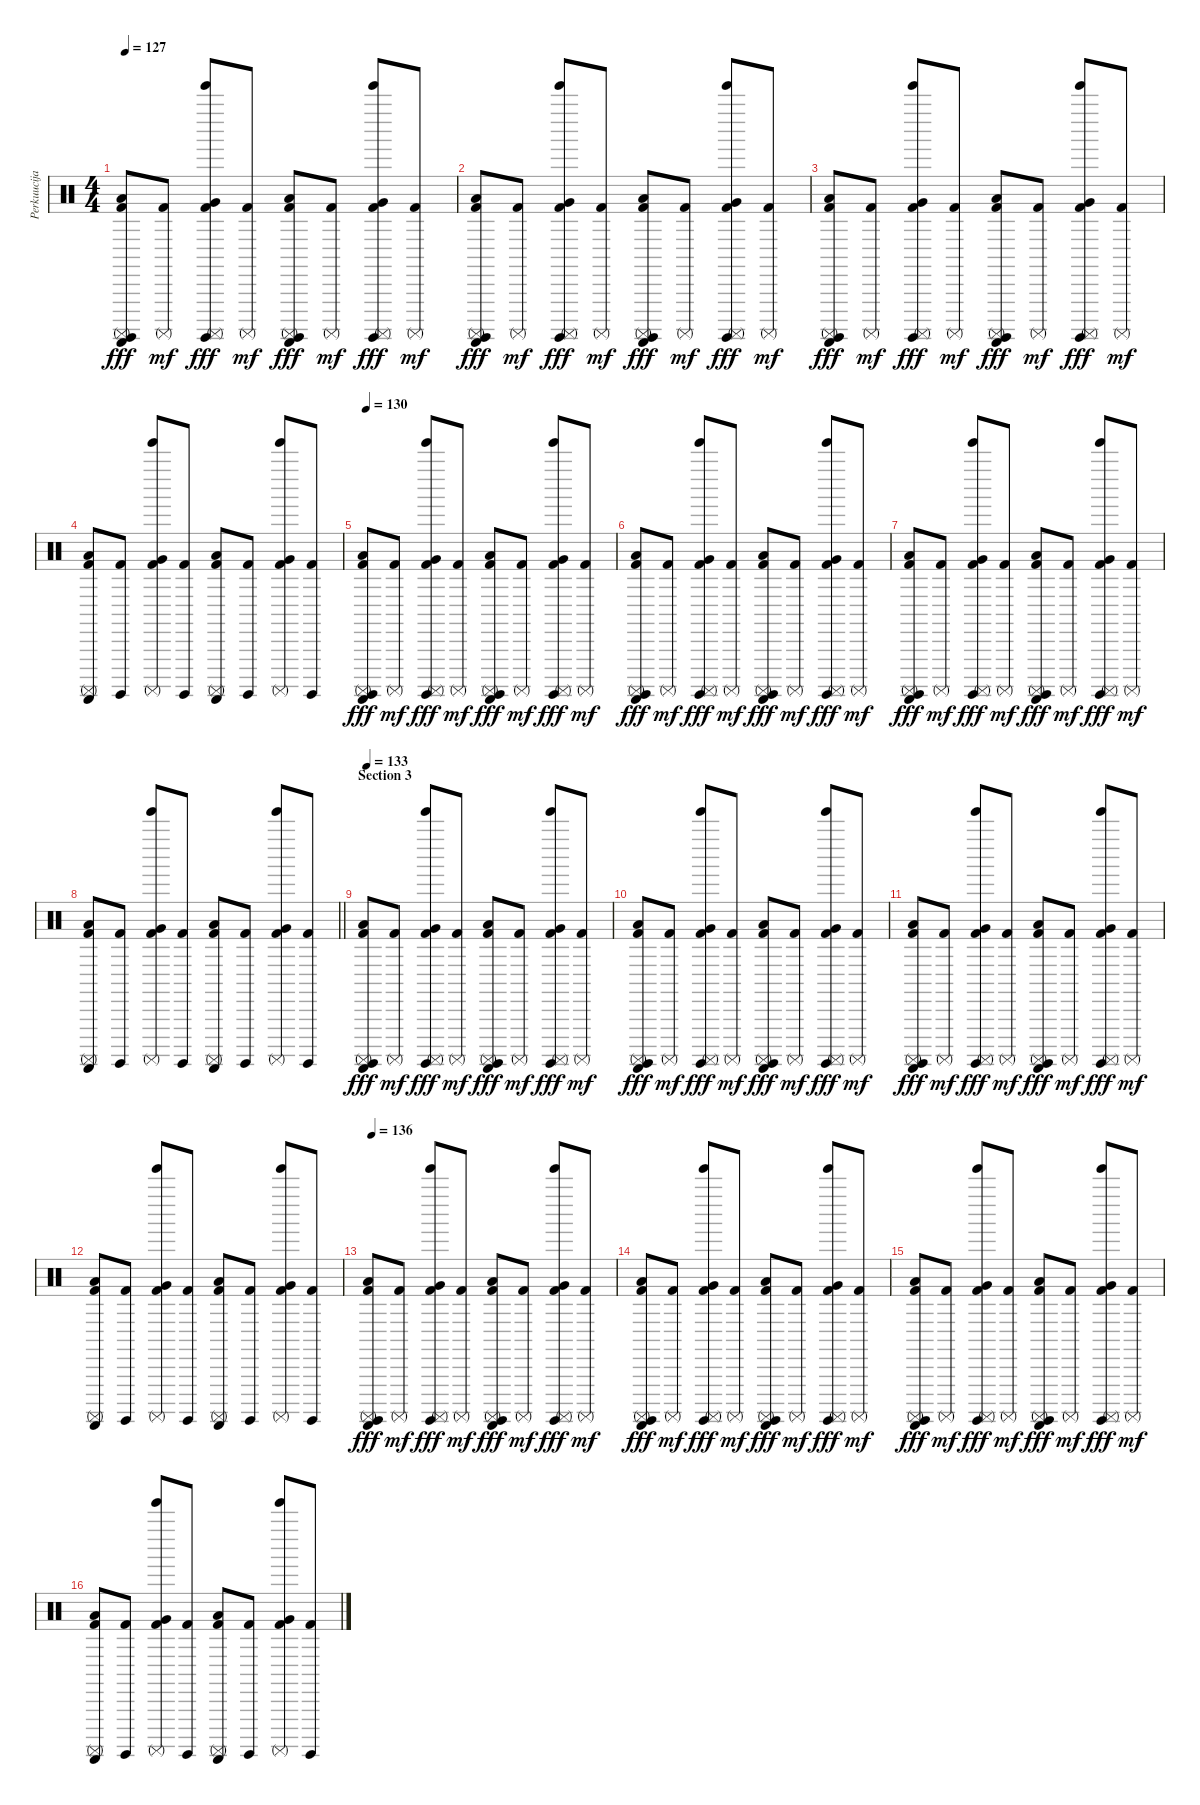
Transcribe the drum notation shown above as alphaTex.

\track ("Perkuucijas" "Perkuucija") {instrument percussion}
\staff {score}
\articulation defaults
\ts (4 4)
\tempo 127
\clef neutral
\ks c
("Kick (hit) 2" "Guiro (scrap-return)" "Low Floor Tom (hit)" "Surdo (hit)" "Surdo (mute)").8{dy fff} ("Kick (hit) 2" "Surdo (mute)").8{dy mf} ("Kick (hit) 2" "Tinkle Bell (hit)" "Very Low Tom (hit)" "Surdo (hit)" "Surdo (mute)").8{dy fff} ("Kick (hit) 2" "Surdo (mute)").8{dy mf} ("Kick (hit) 2" "Guiro (scrap-return)" "Low Tom (hit)" "Surdo (hit)" "Surdo (mute)").8{dy fff} ("Kick (hit) 2" "Surdo (mute)").8{dy mf} ("Kick (hit) 2" "Tinkle Bell (hit)" "Very Low Tom (hit)" "Surdo (hit)" "Surdo (mute)").8{dy fff} ("Kick (hit) 2" "Surdo (mute)").8{dy mf} |
("Kick (hit) 2" "Guiro (scrap-return)" "Low Floor Tom (hit)" "Surdo (hit)" "Surdo (mute)").8{dy fff} ("Kick (hit) 2" "Surdo (mute)").8{dy mf} ("Kick (hit) 2" "Tinkle Bell (hit)" "Very Low Tom (hit)" "Surdo (hit)" "Surdo (mute)").8{dy fff} ("Kick (hit) 2" "Surdo (mute)").8{dy mf} ("Kick (hit) 2" "Guiro (scrap-return)" "Low Tom (hit)" "Surdo (hit)" "Surdo (mute)").8{dy fff} ("Kick (hit) 2" "Surdo (mute)").8{dy mf} ("Kick (hit) 2" "Tinkle Bell (hit)" "Very Low Tom (hit)" "Surdo (hit)" "Surdo (mute)").8{dy fff} ("Kick (hit) 2" "Surdo (mute)").8{dy mf} |
("Kick (hit) 2" "Guiro (scrap-return)" "Low Floor Tom (hit)" "Surdo (hit)" "Surdo (mute)").8{dy fff} ("Kick (hit) 2" "Surdo (mute)").8{dy mf} ("Kick (hit) 2" "Tinkle Bell (hit)" "Very Low Tom (hit)" "Surdo (hit)" "Surdo (mute)").8{dy fff} ("Kick (hit) 2" "Surdo (mute)").8{dy mf} ("Kick (hit) 2" "Guiro (scrap-return)" "Low Tom (hit)" "Surdo (hit)" "Surdo (mute)").8{dy fff} ("Kick (hit) 2" "Surdo (mute)").8{dy mf} ("Kick (hit) 2" "Tinkle Bell (hit)" "Very Low Tom (hit)" "Surdo (hit)" "Surdo (mute)").8{dy fff} ("Kick (hit) 2" "Surdo (mute)").8{dy mf} |
("Kick (hit) 2" "Guiro (scrap-return)" "Low Floor Tom (hit)" "Surdo (mute)").8 ("Kick (hit) 2" "Surdo (hit)").8 ("Kick (hit) 2" "Tinkle Bell (hit)" "Very Low Tom (hit)" "Surdo (mute)").8 ("Kick (hit) 2" "Surdo (hit)").8 ("Kick (hit) 2" "Guiro (scrap-return)" "Low Tom (hit)" "Surdo (mute)").8 ("Kick (hit) 2" "Surdo (hit)").8 ("Kick (hit) 2" "Tinkle Bell (hit)" "Very Low Tom (hit)" "Surdo (mute)").8 ("Kick (hit) 2" "Surdo (hit)").8 |
\tempo 130
("Kick (hit) 2" "Guiro (scrap-return)" "Low Floor Tom (hit)" "Surdo (hit)" "Surdo (mute)").8{dy fff} ("Kick (hit) 2" "Surdo (mute)").8{dy mf} ("Kick (hit) 2" "Tinkle Bell (hit)" "Very Low Tom (hit)" "Surdo (hit)" "Surdo (mute)").8{dy fff} ("Kick (hit) 2" "Surdo (mute)").8{dy mf} ("Kick (hit) 2" "Guiro (scrap-return)" "Low Tom (hit)" "Surdo (hit)" "Surdo (mute)").8{dy fff} ("Kick (hit) 2" "Surdo (mute)").8{dy mf} ("Kick (hit) 2" "Tinkle Bell (hit)" "Very Low Tom (hit)" "Surdo (hit)" "Surdo (mute)").8{dy fff} ("Kick (hit) 2" "Surdo (mute)").8{dy mf} |
("Kick (hit) 2" "Guiro (scrap-return)" "Low Floor Tom (hit)" "Surdo (hit)" "Surdo (mute)").8{dy fff} ("Kick (hit) 2" "Surdo (mute)").8{dy mf} ("Kick (hit) 2" "Tinkle Bell (hit)" "Very Low Tom (hit)" "Surdo (hit)" "Surdo (mute)").8{dy fff} ("Kick (hit) 2" "Surdo (mute)").8{dy mf} ("Kick (hit) 2" "Guiro (scrap-return)" "Low Tom (hit)" "Surdo (hit)" "Surdo (mute)").8{dy fff} ("Kick (hit) 2" "Surdo (mute)").8{dy mf} ("Kick (hit) 2" "Tinkle Bell (hit)" "Very Low Tom (hit)" "Surdo (hit)" "Surdo (mute)").8{dy fff} ("Kick (hit) 2" "Surdo (mute)").8{dy mf} |
("Kick (hit) 2" "Guiro (scrap-return)" "Low Floor Tom (hit)" "Surdo (hit)" "Surdo (mute)").8{dy fff} ("Kick (hit) 2" "Surdo (mute)").8{dy mf} ("Kick (hit) 2" "Tinkle Bell (hit)" "Very Low Tom (hit)" "Surdo (hit)" "Surdo (mute)").8{dy fff} ("Kick (hit) 2" "Surdo (mute)").8{dy mf} ("Kick (hit) 2" "Guiro (scrap-return)" "Low Tom (hit)" "Surdo (hit)" "Surdo (mute)").8{dy fff} ("Kick (hit) 2" "Surdo (mute)").8{dy mf} ("Kick (hit) 2" "Tinkle Bell (hit)" "Very Low Tom (hit)" "Surdo (hit)" "Surdo (mute)").8{dy fff} ("Kick (hit) 2" "Surdo (mute)").8{dy mf} |
\barLineRight lightlight
("Kick (hit) 2" "Guiro (scrap-return)" "Low Floor Tom (hit)" "Surdo (mute)").8 ("Kick (hit) 2" "Surdo (hit)").8 ("Kick (hit) 2" "Tinkle Bell (hit)" "Very Low Tom (hit)" "Surdo (mute)").8 ("Kick (hit) 2" "Surdo (hit)").8 ("Kick (hit) 2" "Guiro (scrap-return)" "Low Tom (hit)" "Surdo (mute)").8 ("Kick (hit) 2" "Surdo (hit)").8 ("Kick (hit) 2" "Tinkle Bell (hit)" "Very Low Tom (hit)" "Surdo (mute)").8 ("Kick (hit) 2" "Surdo (hit)").8 |
\section ("" "Section 3")
\tempo 133
("Kick (hit) 2" "Guiro (scrap-return)" "Low Floor Tom (hit)" "Surdo (hit)" "Surdo (mute)").8{dy fff} ("Kick (hit) 2" "Surdo (mute)").8{dy mf} ("Kick (hit) 2" "Tinkle Bell (hit)" "Very Low Tom (hit)" "Surdo (hit)" "Surdo (mute)").8{dy fff} ("Kick (hit) 2" "Surdo (mute)").8{dy mf} ("Kick (hit) 2" "Guiro (scrap-return)" "Low Tom (hit)" "Surdo (hit)" "Surdo (mute)").8{dy fff} ("Kick (hit) 2" "Surdo (mute)").8{dy mf} ("Kick (hit) 2" "Tinkle Bell (hit)" "Very Low Tom (hit)" "Surdo (hit)" "Surdo (mute)").8{dy fff} ("Kick (hit) 2" "Surdo (mute)").8{dy mf} |
("Kick (hit) 2" "Guiro (scrap-return)" "Low Floor Tom (hit)" "Surdo (hit)" "Surdo (mute)").8{dy fff} ("Kick (hit) 2" "Surdo (mute)").8{dy mf} ("Kick (hit) 2" "Tinkle Bell (hit)" "Very Low Tom (hit)" "Surdo (hit)" "Surdo (mute)").8{dy fff} ("Kick (hit) 2" "Surdo (mute)").8{dy mf} ("Kick (hit) 2" "Guiro (scrap-return)" "Low Tom (hit)" "Surdo (hit)" "Surdo (mute)").8{dy fff} ("Kick (hit) 2" "Surdo (mute)").8{dy mf} ("Kick (hit) 2" "Tinkle Bell (hit)" "Very Low Tom (hit)" "Surdo (hit)" "Surdo (mute)").8{dy fff} ("Kick (hit) 2" "Surdo (mute)").8{dy mf} |
("Kick (hit) 2" "Guiro (scrap-return)" "Low Floor Tom (hit)" "Surdo (hit)" "Surdo (mute)").8{dy fff} ("Kick (hit) 2" "Surdo (mute)").8{dy mf} ("Kick (hit) 2" "Tinkle Bell (hit)" "Very Low Tom (hit)" "Surdo (hit)" "Surdo (mute)").8{dy fff} ("Kick (hit) 2" "Surdo (mute)").8{dy mf} ("Kick (hit) 2" "Guiro (scrap-return)" "Low Tom (hit)" "Surdo (hit)" "Surdo (mute)").8{dy fff} ("Kick (hit) 2" "Surdo (mute)").8{dy mf} ("Kick (hit) 2" "Tinkle Bell (hit)" "Very Low Tom (hit)" "Surdo (hit)" "Surdo (mute)").8{dy fff} ("Kick (hit) 2" "Surdo (mute)").8{dy mf} |
("Kick (hit) 2" "Guiro (scrap-return)" "Low Floor Tom (hit)" "Surdo (mute)").8 ("Kick (hit) 2" "Surdo (hit)").8 ("Kick (hit) 2" "Tinkle Bell (hit)" "Very Low Tom (hit)" "Surdo (mute)").8 ("Kick (hit) 2" "Surdo (hit)").8 ("Kick (hit) 2" "Guiro (scrap-return)" "Low Tom (hit)" "Surdo (mute)").8 ("Kick (hit) 2" "Surdo (hit)").8 ("Kick (hit) 2" "Tinkle Bell (hit)" "Very Low Tom (hit)" "Surdo (mute)").8 ("Kick (hit) 2" "Surdo (hit)").8 |
\tempo 136
("Kick (hit) 2" "Guiro (scrap-return)" "Low Floor Tom (hit)" "Surdo (hit)" "Surdo (mute)").8{dy fff} ("Kick (hit) 2" "Surdo (mute)").8{dy mf} ("Kick (hit) 2" "Tinkle Bell (hit)" "Very Low Tom (hit)" "Surdo (hit)" "Surdo (mute)").8{dy fff} ("Kick (hit) 2" "Surdo (mute)").8{dy mf} ("Kick (hit) 2" "Guiro (scrap-return)" "Low Tom (hit)" "Surdo (hit)" "Surdo (mute)").8{dy fff} ("Kick (hit) 2" "Surdo (mute)").8{dy mf} ("Kick (hit) 2" "Tinkle Bell (hit)" "Very Low Tom (hit)" "Surdo (hit)" "Surdo (mute)").8{dy fff} ("Kick (hit) 2" "Surdo (mute)").8{dy mf} |
("Kick (hit) 2" "Guiro (scrap-return)" "Low Floor Tom (hit)" "Surdo (hit)" "Surdo (mute)").8{dy fff} ("Kick (hit) 2" "Surdo (mute)").8{dy mf} ("Kick (hit) 2" "Tinkle Bell (hit)" "Very Low Tom (hit)" "Surdo (hit)" "Surdo (mute)").8{dy fff} ("Kick (hit) 2" "Surdo (mute)").8{dy mf} ("Kick (hit) 2" "Guiro (scrap-return)" "Low Tom (hit)" "Surdo (hit)" "Surdo (mute)").8{dy fff} ("Kick (hit) 2" "Surdo (mute)").8{dy mf} ("Kick (hit) 2" "Tinkle Bell (hit)" "Very Low Tom (hit)" "Surdo (hit)" "Surdo (mute)").8{dy fff} ("Kick (hit) 2" "Surdo (mute)").8{dy mf} |
("Kick (hit) 2" "Guiro (scrap-return)" "Low Floor Tom (hit)" "Surdo (hit)" "Surdo (mute)").8{dy fff} ("Kick (hit) 2" "Surdo (mute)").8{dy mf} ("Kick (hit) 2" "Tinkle Bell (hit)" "Very Low Tom (hit)" "Surdo (hit)" "Surdo (mute)").8{dy fff} ("Kick (hit) 2" "Surdo (mute)").8{dy mf} ("Kick (hit) 2" "Guiro (scrap-return)" "Low Tom (hit)" "Surdo (hit)" "Surdo (mute)").8{dy fff} ("Kick (hit) 2" "Surdo (mute)").8{dy mf} ("Kick (hit) 2" "Tinkle Bell (hit)" "Very Low Tom (hit)" "Surdo (hit)" "Surdo (mute)").8{dy fff} ("Kick (hit) 2" "Surdo (mute)").8{dy mf} |
("Kick (hit) 2" "Guiro (scrap-return)" "Low Floor Tom (hit)" "Surdo (mute)").8 ("Kick (hit) 2" "Surdo (hit)").8 ("Kick (hit) 2" "Tinkle Bell (hit)" "Very Low Tom (hit)" "Surdo (mute)").8 ("Kick (hit) 2" "Surdo (hit)").8 ("Kick (hit) 2" "Guiro (scrap-return)" "Low Tom (hit)" "Surdo (mute)").8 ("Kick (hit) 2" "Surdo (hit)").8 ("Kick (hit) 2" "Tinkle Bell (hit)" "Very Low Tom (hit)" "Surdo (mute)").8 ("Kick (hit) 2" "Surdo (hit)").8
